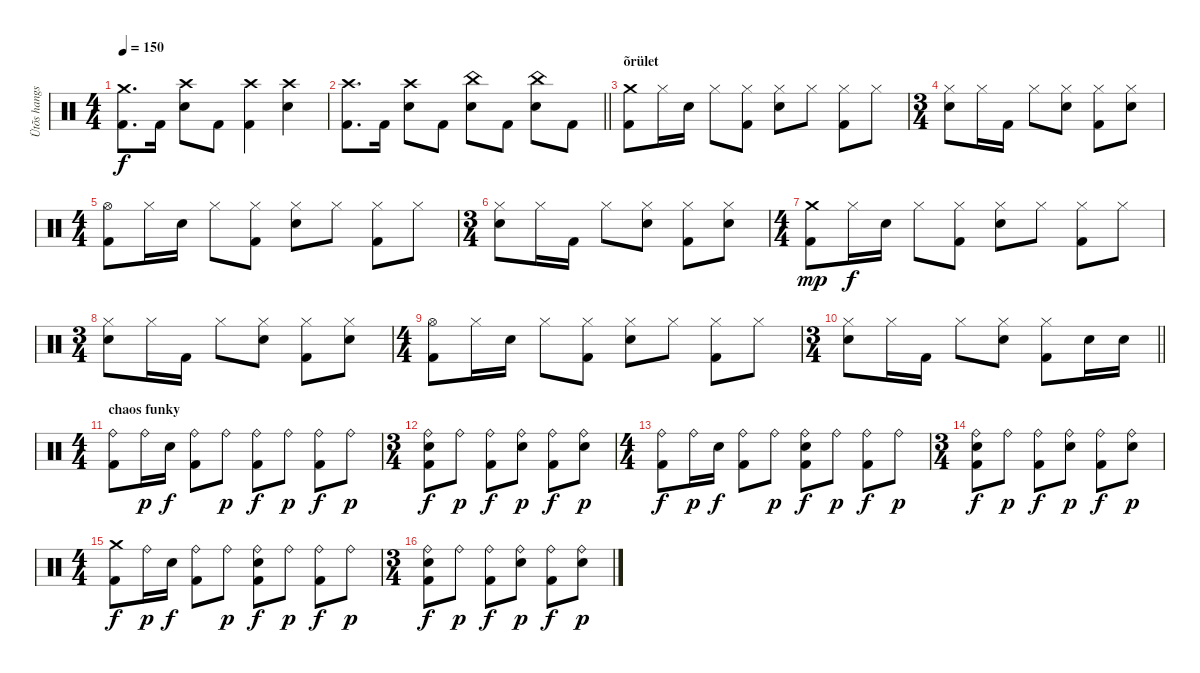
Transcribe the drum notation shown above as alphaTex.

\track ("Ütõs hangszer" "Ütõs hangs") {instrument percussion}
\staff {score}
\articulation defaults
\ts (4 4)
\tempo 150
\clef neutral
\ks c
("Crash medium (hit)" "Kick (hit) 2").8{d dy f} "Kick (hit) 2".16 ("Crash high (hit)" "Electric Snare (hit)").8 "Kick (hit) 2".8 ("Crash high (hit)" "Kick (hit) 2").4 ("Crash high (hit)" "Electric Snare (hit)").4 |
\barLineRight lightlight
("Crash high (hit)" "Kick (hit) 2").8{d} "Kick (hit) 2".16 ("Crash high (hit)" "Electric Snare (hit)").8 "Kick (hit) 2".8 ("China (hit)" "Electric Snare (hit)").8 "Kick (hit) 2".8 ("China (hit)" "Electric Snare (hit)").8 "Kick (hit) 2".8 |
\section ("" "õrület")
("Crash medium (hit)" "Kick (hit) 2").8 "Hi-Hat (closed)".16 "Electric Snare (hit)".16 "Hi-Hat (closed)".8 ("Hi-Hat (closed)" "Kick (hit) 2").8 ("Hi-Hat (closed)" "Electric Snare (hit)").8 "Hi-Hat (closed)".8 ("Hi-Hat (closed)" "Kick (hit) 2").8 "Hi-Hat (closed)".8 |
\ts (3 4)
("Hi-Hat (closed)" "Electric Snare (hit)").8 "Hi-Hat (closed)".16 "Kick (hit) 2".16 "Hi-Hat (closed)".8 ("Hi-Hat (closed)" "Electric Snare (hit)").8 ("Hi-Hat (closed)" "Kick (hit) 2").8 ("Hi-Hat (closed)" "Electric Snare (hit)").8 |
\ts (4 4)
("Hi-Hat (open)" "Kick (hit) 2").8 "Hi-Hat (closed)".16 "Electric Snare (hit)".16 "Hi-Hat (closed)".8 ("Hi-Hat (closed)" "Kick (hit) 2").8 ("Hi-Hat (closed)" "Electric Snare (hit)").8 "Hi-Hat (closed)".8 ("Hi-Hat (closed)" "Kick (hit) 2").8 "Hi-Hat (closed)".8 |
\ts (3 4)
("Hi-Hat (closed)" "Electric Snare (hit)").8 "Hi-Hat (closed)".16 "Kick (hit) 2".16 "Hi-Hat (closed)".8 ("Hi-Hat (closed)" "Electric Snare (hit)").8 ("Hi-Hat (closed)" "Kick (hit) 2").8 ("Hi-Hat (closed)" "Electric Snare (hit)").8 |
\ts (4 4)
("Crash medium (hit)" "Kick (hit) 2").8{dy mp} "Hi-Hat (closed)".16{dy f} "Electric Snare (hit)".16 "Hi-Hat (closed)".8 ("Hi-Hat (closed)" "Kick (hit) 2").8 ("Hi-Hat (closed)" "Electric Snare (hit)").8 "Hi-Hat (closed)".8 ("Hi-Hat (closed)" "Kick (hit) 2").8 "Hi-Hat (closed)".8 |
\ts (3 4)
("Hi-Hat (closed)" "Electric Snare (hit)").8 "Hi-Hat (closed)".16 "Kick (hit) 2".16 "Hi-Hat (closed)".8 ("Hi-Hat (closed)" "Electric Snare (hit)").8 ("Hi-Hat (closed)" "Kick (hit) 2").8 ("Hi-Hat (closed)" "Electric Snare (hit)").8 |
\ts (4 4)
("Hi-Hat (open)" "Kick (hit) 2").8 "Hi-Hat (closed)".16 "Electric Snare (hit)".16 "Hi-Hat (closed)".8 ("Hi-Hat (closed)" "Kick (hit) 2").8 ("Hi-Hat (closed)" "Electric Snare (hit)").8 "Hi-Hat (closed)".8 ("Hi-Hat (closed)" "Kick (hit) 2").8 "Hi-Hat (closed)".8 |
\ts (3 4)
\barLineRight lightlight
("Hi-Hat (closed)" "Electric Snare (hit)").8 "Hi-Hat (closed)".16 "Kick (hit) 2".16 "Hi-Hat (closed)".8 ("Hi-Hat (closed)" "Electric Snare (hit)").8 ("Hi-Hat (closed)" "Kick (hit) 2").8 "Electric Snare (hit)".16 "Electric Snare (hit)".16 |
\ts (4 4)
\section ("" "chaos funky")
("Ride (bell)" "Kick (hit) 2").8 "Ride (bell)".16{dy p} "Electric Snare (hit)".16{dy f} ("Ride (bell)" "Kick (hit) 2").8 "Ride (bell)".8{dy p} ("Ride (bell)" "Kick (hit) 2").8{dy f} "Ride (bell)".8{dy p} ("Ride (bell)" "Kick (hit) 2").8{dy f} "Ride (bell)".8{dy p} |
\ts (3 4)
("Ride (bell)" "Electric Snare (hit)" "Kick (hit) 2").8{dy f} "Ride (bell)".8{dy p} ("Ride (bell)" "Kick (hit) 2").8{dy f} ("Ride (bell)" "Electric Snare (hit)").8{dy p} ("Ride (bell)" "Kick (hit) 2").8{dy f} ("Ride (bell)" "Electric Snare (hit)").8{dy p} |
\ts (4 4)
("Ride (bell)" "Kick (hit) 2").8{dy f} "Ride (bell)".16{dy p} "Electric Snare (hit)".16{dy f} ("Ride (bell)" "Kick (hit) 2").8 "Ride (bell)".8{dy p} ("Ride (bell)" "Electric Snare (hit)" "Kick (hit) 2").8{dy f} "Ride (bell)".8{dy p} ("Ride (bell)" "Kick (hit) 2").8{dy f} "Ride (bell)".8{dy p} |
\ts (3 4)
("Ride (bell)" "Electric Snare (hit)" "Kick (hit) 2").8{dy f} "Ride (bell)".8{dy p} ("Ride (bell)" "Kick (hit) 2").8{dy f} ("Ride (bell)" "Electric Snare (hit)").8{dy p} ("Ride (bell)" "Kick (hit) 2").8{dy f} ("Ride (bell)" "Electric Snare (hit)").8{dy p} |
\ts (4 4)
("Crash medium (hit)" "Kick (hit) 2").8{dy f} "Ride (bell)".16{dy p} "Electric Snare (hit)".16{dy f} ("Ride (bell)" "Kick (hit) 2").8 "Ride (bell)".8{dy p} ("Ride (bell)" "Electric Snare (hit)" "Kick (hit) 2").8{dy f} "Ride (bell)".8{dy p} ("Ride (bell)" "Kick (hit) 2").8{dy f} "Ride (bell)".8{dy p} |
\ts (3 4)
("Ride (bell)" "Electric Snare (hit)" "Kick (hit) 2").8{dy f} "Ride (bell)".8{dy p} ("Ride (bell)" "Kick (hit) 2").8{dy f} ("Ride (bell)" "Electric Snare (hit)").8{dy p} ("Ride (bell)" "Kick (hit) 2").8{dy f} ("Ride (bell)" "Electric Snare (hit)").8{dy p}
